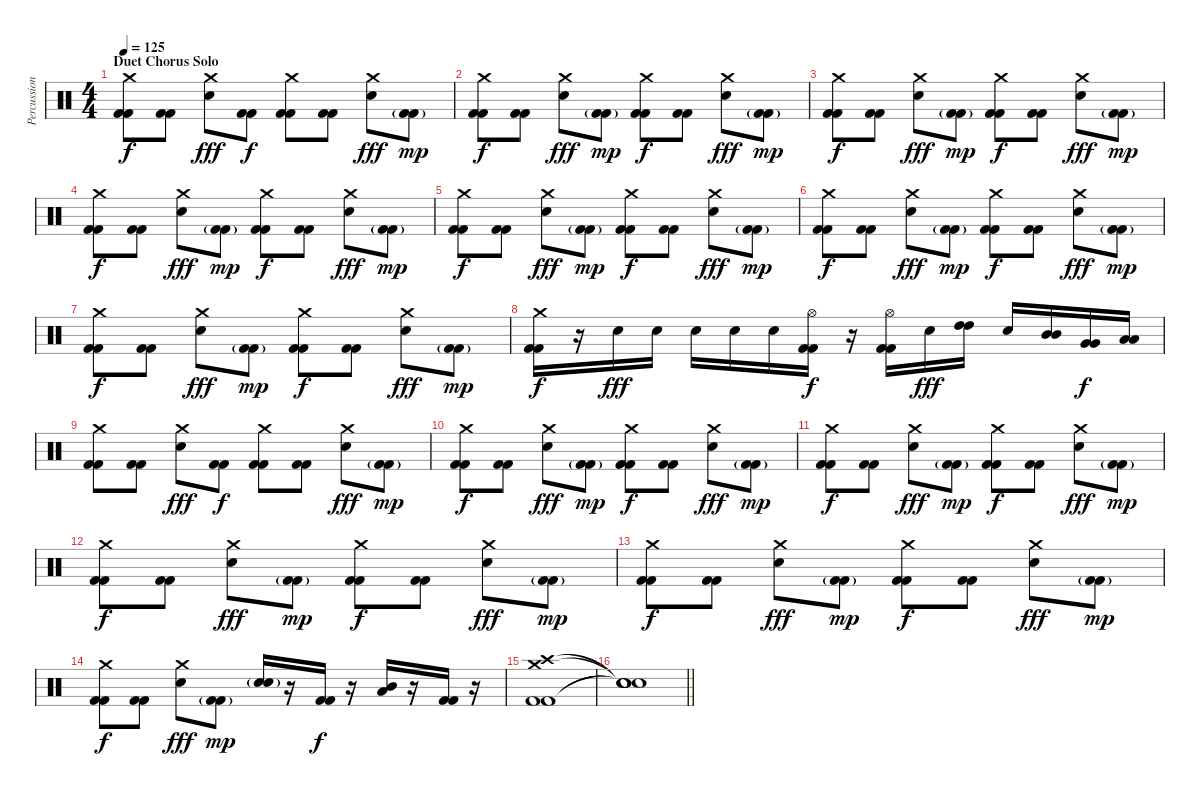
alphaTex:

\track ("Percussion" "Percussion") {solo instrument percussion}
\staff {score}
\articulation defaults
\ts (4 4)
\section ("" "Duet Chorus Solo")
\tempo 125
\clef neutral
\ks c
("Crash medium (hit)" "Kick (hit) 2" "Kick (hit) 2").8{dy f volume 15} ("Kick (hit) 2" "Kick (hit) 2").8 ("Crash medium (hit)" "Electric Snare (hit)").8{dy fff} ("Kick (hit) 2" "Kick (hit) 2").8{dy f} ("Crash medium (hit)" "Kick (hit) 2" "Kick (hit) 2").8 ("Kick (hit) 2" "Kick (hit) 2").8 ("Crash medium (hit)" "Electric Snare (hit)").8{dy fff} ("Kick (hit) 2"{g} "Kick (hit) 2"{g}).8{dy mp} |
("Crash medium (hit)" "Kick (hit) 2" "Kick (hit) 2").8{dy f} ("Kick (hit) 2" "Kick (hit) 2").8 ("Crash medium (hit)" "Electric Snare (hit)").8{dy fff} ("Kick (hit) 2"{g} "Kick (hit) 2"{g}).8{dy mp} ("Crash medium (hit)" "Kick (hit) 2" "Kick (hit) 2").8{dy f} ("Kick (hit) 2" "Kick (hit) 2").8 ("Crash medium (hit)" "Electric Snare (hit)").8{dy fff} ("Kick (hit) 2"{g} "Kick (hit) 2"{g}).8{dy mp} |
("Crash medium (hit)" "Kick (hit) 2" "Kick (hit) 2").8{dy f} ("Kick (hit) 2" "Kick (hit) 2").8 ("Crash medium (hit)" "Electric Snare (hit)").8{dy fff} ("Kick (hit) 2"{g} "Kick (hit) 2"{g}).8{dy mp} ("Crash medium (hit)" "Kick (hit) 2" "Kick (hit) 2").8{dy f} ("Kick (hit) 2" "Kick (hit) 2").8 ("Crash medium (hit)" "Electric Snare (hit)").8{dy fff} ("Kick (hit) 2"{g} "Kick (hit) 2"{g}).8{dy mp} |
("Crash medium (hit)" "Kick (hit) 2" "Kick (hit) 2").8{dy f} ("Kick (hit) 2" "Kick (hit) 2").8 ("Crash medium (hit)" "Electric Snare (hit)").8{dy fff} ("Kick (hit) 2"{g} "Kick (hit) 2"{g}).8{dy mp} ("Crash medium (hit)" "Kick (hit) 2" "Kick (hit) 2").8{dy f} ("Kick (hit) 2" "Kick (hit) 2").8 ("Crash medium (hit)" "Electric Snare (hit)").8{dy fff} ("Kick (hit) 2"{g} "Kick (hit) 2"{g}).8{dy mp} |
("Crash medium (hit)" "Kick (hit) 2" "Kick (hit) 2").8{dy f} ("Kick (hit) 2" "Kick (hit) 2").8 ("Crash medium (hit)" "Electric Snare (hit)").8{dy fff} ("Kick (hit) 2"{g} "Kick (hit) 2"{g}).8{dy mp} ("Crash medium (hit)" "Kick (hit) 2" "Kick (hit) 2").8{dy f} ("Kick (hit) 2" "Kick (hit) 2").8 ("Crash medium (hit)" "Electric Snare (hit)").8{dy fff} ("Kick (hit) 2"{g} "Kick (hit) 2"{g}).8{dy mp} |
("Crash medium (hit)" "Kick (hit) 2" "Kick (hit) 2").8{dy f} ("Kick (hit) 2" "Kick (hit) 2").8 ("Crash medium (hit)" "Electric Snare (hit)").8{dy fff} ("Kick (hit) 2"{g} "Kick (hit) 2"{g}).8{dy mp} ("Crash medium (hit)" "Kick (hit) 2" "Kick (hit) 2").8{dy f} ("Kick (hit) 2" "Kick (hit) 2").8 ("Crash medium (hit)" "Electric Snare (hit)").8{dy fff} ("Kick (hit) 2"{g} "Kick (hit) 2"{g}).8{dy mp} |
("Crash medium (hit)" "Kick (hit) 2" "Kick (hit) 2").8{dy f} ("Kick (hit) 2" "Kick (hit) 2").8 ("Crash medium (hit)" "Electric Snare (hit)").8{dy fff} ("Kick (hit) 2"{g} "Kick (hit) 2"{g}).8{dy mp} ("Crash medium (hit)" "Kick (hit) 2" "Kick (hit) 2").8{dy f} ("Kick (hit) 2" "Kick (hit) 2").8 ("Crash medium (hit)" "Electric Snare (hit)").8{dy fff} ("Kick (hit) 2"{g} "Kick (hit) 2"{g}).8{dy mp} |
("Crash medium (hit)" "Kick (hit) 2" "Kick (hit) 2").16{dy f} r.16 "Electric Snare (hit)".16{dy fff} "Electric Snare (hit)".16 "Electric Snare (hit)".16 "Electric Snare (hit)".16 "Electric Snare (hit)".16 ("Hi-Hat (open)" "Kick (hit) 2" "Kick (hit) 2").16{dy f} r.16 ("Hi-Hat (open)" "Kick (hit) 2" "Kick (hit) 2").16 "Electric Snare (hit)".16{dy fff} ("High Tom (hit)" "High Tom (hit)").16 "Electric Snare (hit)".16 ("Mid Tom (hit)" "Mid Tom (hit)").16 ("Very Low Tom (hit)" "Very Low Tom (hit)").16{dy f} ("Low Floor Tom (hit)" "Low Floor Tom (hit)").16 |
("Crash medium (hit)" "Kick (hit) 2" "Kick (hit) 2").8 ("Kick (hit) 2" "Kick (hit) 2").8 ("Crash medium (hit)" "Electric Snare (hit)").8{dy fff} ("Kick (hit) 2" "Kick (hit) 2").8{dy f} ("Crash medium (hit)" "Kick (hit) 2" "Kick (hit) 2").8 ("Kick (hit) 2" "Kick (hit) 2").8 ("Crash medium (hit)" "Electric Snare (hit)").8{dy fff} ("Kick (hit) 2"{g} "Kick (hit) 2"{g}).8{dy mp} |
("Crash medium (hit)" "Kick (hit) 2" "Kick (hit) 2").8{dy f} ("Kick (hit) 2" "Kick (hit) 2").8 ("Crash medium (hit)" "Electric Snare (hit)").8{dy fff} ("Kick (hit) 2"{g} "Kick (hit) 2"{g}).8{dy mp} ("Crash medium (hit)" "Kick (hit) 2" "Kick (hit) 2").8{dy f} ("Kick (hit) 2" "Kick (hit) 2").8 ("Crash medium (hit)" "Electric Snare (hit)").8{dy fff} ("Kick (hit) 2"{g} "Kick (hit) 2"{g}).8{dy mp} |
("Crash medium (hit)" "Kick (hit) 2" "Kick (hit) 2").8{dy f} ("Kick (hit) 2" "Kick (hit) 2").8 ("Crash medium (hit)" "Electric Snare (hit)").8{dy fff} ("Kick (hit) 2"{g} "Kick (hit) 2"{g}).8{dy mp} ("Crash medium (hit)" "Kick (hit) 2" "Kick (hit) 2").8{dy f} ("Kick (hit) 2" "Kick (hit) 2").8 ("Crash medium (hit)" "Electric Snare (hit)").8{dy fff} ("Kick (hit) 2"{g} "Kick (hit) 2"{g}).8{dy mp} |
("Crash medium (hit)" "Kick (hit) 2" "Kick (hit) 2").8{dy f} ("Kick (hit) 2" "Kick (hit) 2").8 ("Crash medium (hit)" "Electric Snare (hit)").8{dy fff} ("Kick (hit) 2"{g} "Kick (hit) 2"{g}).8{dy mp} ("Crash medium (hit)" "Kick (hit) 2" "Kick (hit) 2").8{dy f} ("Kick (hit) 2" "Kick (hit) 2").8 ("Crash medium (hit)" "Electric Snare (hit)").8{dy fff} ("Kick (hit) 2"{g} "Kick (hit) 2"{g}).8{dy mp} |
("Crash medium (hit)" "Kick (hit) 2" "Kick (hit) 2").8{dy f} ("Kick (hit) 2" "Kick (hit) 2").8 ("Crash medium (hit)" "Electric Snare (hit)").8{dy fff} ("Kick (hit) 2"{g} "Kick (hit) 2"{g}).8{dy mp} ("Crash medium (hit)" "Kick (hit) 2" "Kick (hit) 2").8{dy f} ("Kick (hit) 2" "Kick (hit) 2").8 ("Crash medium (hit)" "Electric Snare (hit)").8{dy fff} ("Kick (hit) 2"{g} "Kick (hit) 2"{g}).8{dy mp} |
("Crash medium (hit)" "Kick (hit) 2" "Kick (hit) 2").8{dy f} ("Kick (hit) 2" "Kick (hit) 2").8 ("Crash medium (hit)" "Electric Snare (hit)").8{dy fff} ("Kick (hit) 2"{g} "Kick (hit) 2"{g}).8{dy mp} ("Electric Snare (hit)" "Electric Snare (hit)"{g}).16 r.16 ("Kick (hit) 2" "Kick (hit) 2").16{dy f} r.16 ("Mid Tom (hit)" "Low Floor Tom (hit)").16 r.16 ("Kick (hit) 2" "Kick (hit) 2").16 r.16 |
("Crash high (hit)" "Crash medium (hit)" "Kick (hit) 2" "Kick (hit) 2").1 |
\barLineRight lightlight
("Snare (hit)"{t} "Snare (hit)"{t} "Snare (hit)"{t} "Snare (hit)"{t}).1
